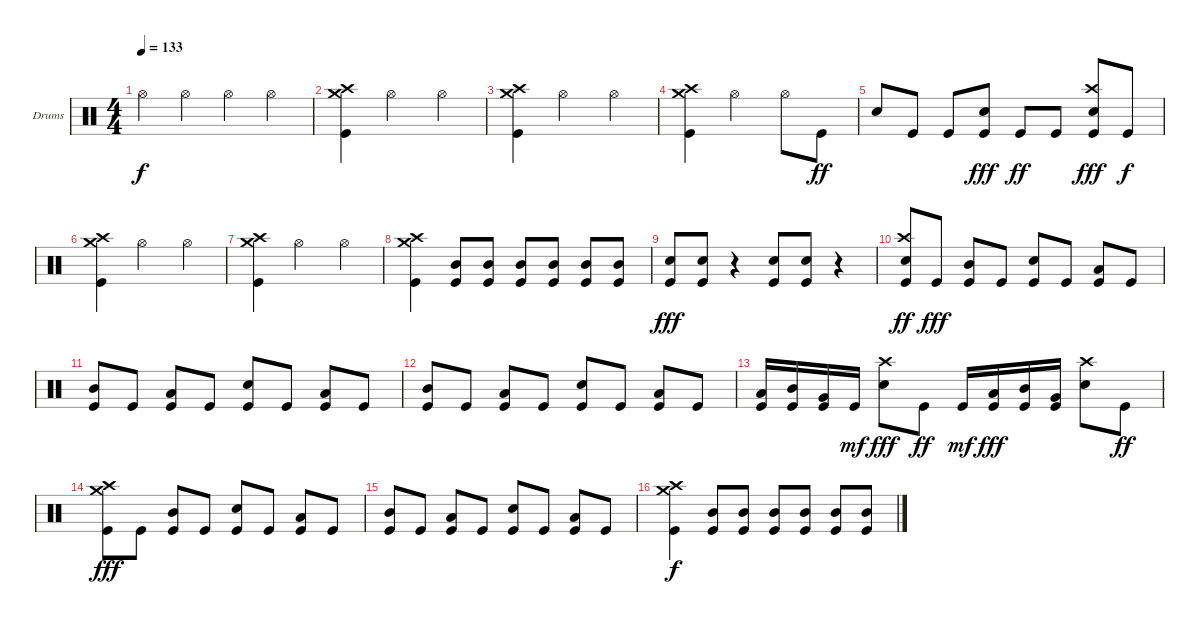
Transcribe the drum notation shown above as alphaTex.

\defaultSystemsLayout 4
\bracketExtendMode groupsimilarinstruments
\firstSystemTrackNameOrientation horizontal
\otherSystemsTrackNameOrientation horizontal
\track ("Drumkit" "Drums") {instrument percussion}
\staff {score}
\articulation defaults
\ts (4 4)
\tempo 133
\clef neutral
\ks c "Hi-Hat (open)".4{dy f} "Hi-Hat (open)".4 "Hi-Hat (open)".4 "Hi-Hat (open)".4
|
("Kick (hit)" "Crash medium (hit)" "Crash high (hit)").4 "Hi-Hat (open)".2 "Hi-Hat (open)".4 |
("Kick (hit)" "Crash medium (hit)" "Crash high (hit)").4 "Hi-Hat (open)".2 "Hi-Hat (open)".4 |
("Kick (hit)" "Crash medium (hit)" "Crash high (hit)").4 "Hi-Hat (open)".2 "Hi-Hat (open)".8 "Kick (hit)".8{dy ff} |
"Snare (hit) 2".8 "Kick (hit)".8 "Kick (hit)".8 ("Kick (hit)" "Snare (hit) 2").8{dy fff} "Kick (hit)".8{dy ff} "Kick (hit)".8 ("Kick (hit)" "Crash high (hit)" "Snare (hit) 2").8{dy fff} "Kick (hit)".8{dy f} |
("Kick (hit)" "Crash medium (hit)" "Crash high (hit)").4 "Hi-Hat (open)".2 "Hi-Hat (open)".4 |
("Kick (hit)" "Crash medium (hit)" "Crash high (hit)").4 "Hi-Hat (open)".2 "Hi-Hat (open)".4 |
("Kick (hit)" "Crash medium (hit)" "Crash high (hit)").4 ("Kick (hit)" "Mid Tom (hit)").8 ("Kick (hit)" "Mid Tom (hit)").8 ("Kick (hit)" "Mid Tom (hit)").8 ("Kick (hit)" "Mid Tom (hit)").8 ("Kick (hit)" "Mid Tom (hit)").8 ("Kick (hit)" "Mid Tom (hit)").8 |
("Kick (hit)" "Snare (hit) 2").8{dy fff} ("Kick (hit)" "Snare (hit) 2").8 r.4 ("Kick (hit)" "Snare (hit) 2").8 ("Kick (hit)" "Snare (hit) 2").8 r.4 |
("Crash high (hit)" "Kick (hit)" "Snare (hit) 2").8{dy ff} "Kick (hit)".8{dy fff} ("Kick (hit)" "Mid Tom (hit)").8 "Kick (hit)".8 ("Kick (hit)" "Snare (hit) 2").8 "Kick (hit)".8 ("Kick (hit)" "Low Tom (hit)").8 "Kick (hit)".8 |
("Kick (hit)" "Mid Tom (hit)").8 "Kick (hit)".8 ("Kick (hit)" "Low Tom (hit)").8 "Kick (hit)".8 ("Kick (hit)" "Snare (hit) 2").8 "Kick (hit)".8 ("Kick (hit)" "Low Tom (hit)").8 "Kick (hit)".8 |
("Kick (hit)" "Mid Tom (hit)").8 "Kick (hit)".8 ("Kick (hit)" "Low Tom (hit)").8 "Kick (hit)".8 ("Kick (hit)" "Snare (hit) 2").8 "Kick (hit)".8 ("Kick (hit)" "Low Tom (hit)").8 "Kick (hit)".8 |
("Kick (hit)" "Low Tom (hit)").16 ("Kick (hit)" "Mid Tom (hit)").16 ("Kick (hit)" "Very Low Tom (hit)").16 "Kick (hit)".16{dy mf} ("Snare (hit) 2" "Crash high (hit)").8{dy fff} "Kick (hit)".8{dy ff} "Kick (hit)".16{dy mf} ("Kick (hit)" "Low Tom (hit)").16{dy fff} ("Kick (hit)" "Mid Tom (hit)").16 ("Kick (hit)" "Very Low Tom (hit)").16 ("Snare (hit) 2" "Crash high (hit)").8 "Kick (hit)".8{dy ff} |
("Crash high (hit)" "Kick (hit)" "Crash medium (hit)").8{dy fff} "Kick (hit)".8 ("Kick (hit)" "Mid Tom (hit)").8 "Kick (hit)".8 ("Kick (hit)" "Snare (hit) 2").8 "Kick (hit)".8 ("Kick (hit)" "Low Tom (hit)").8 "Kick (hit)".8 |
("Kick (hit)" "Mid Tom (hit)").8 "Kick (hit)".8 ("Kick (hit)" "Low Tom (hit)").8 "Kick (hit)".8 ("Kick (hit)" "Snare (hit) 2").8 "Kick (hit)".8 ("Kick (hit)" "Low Tom (hit)").8 "Kick (hit)".8 |
("Kick (hit)" "Crash medium (hit)" "Crash high (hit)").4{dy f} ("Kick (hit)" "Mid Tom (hit)").8 ("Kick (hit)" "Mid Tom (hit)").8 ("Kick (hit)" "Mid Tom (hit)").8 ("Kick (hit)" "Mid Tom (hit)").8 ("Kick (hit)" "Mid Tom (hit)").8 ("Kick (hit)" "Mid Tom (hit)").8
